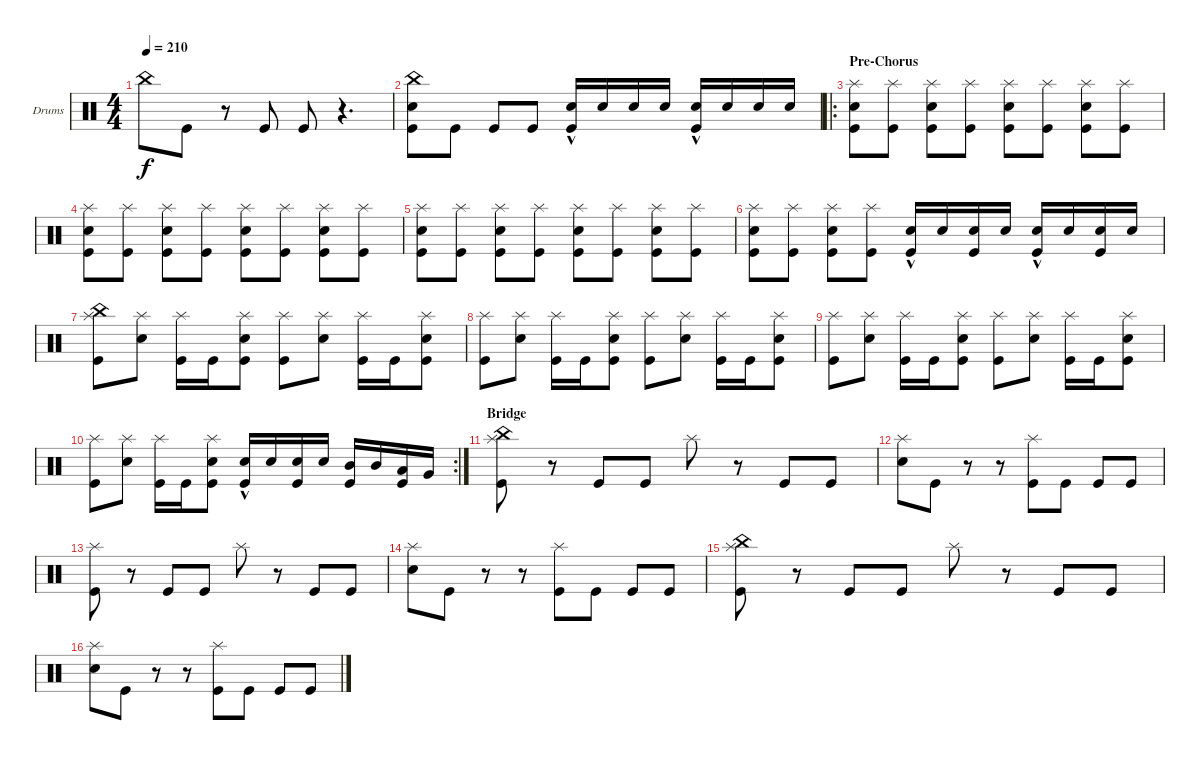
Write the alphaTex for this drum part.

\defaultSystemsLayout 4
\bracketExtendMode groupsimilarinstruments
\firstSystemTrackNameOrientation horizontal
\otherSystemsTrackNameOrientation horizontal
\track ("Drumkit" "Drums") {instrument percussion}
\staff {score}
\articulation defaults
\ts (4 4)
\tempo 210
\clef neutral
\ks c "China (hit)".8{dy f} "Kick (hit)".8
r.8 "Kick (hit)".8 "Kick (hit)".8 r.4{d} |
("Kick (hit)" "China (hit)" "Snare (hit) 2").8 "Kick (hit)".8 "Kick (hit)".8 "Kick (hit)".8 ("Snare (hit) 2"{hac} "Kick (hit)").16 "Snare (hit) 2".16 "Snare (hit) 2".16 "Snare (hit) 2".16 ("Snare (hit) 2"{hac} "Kick (hit)").16 "Snare (hit) 2".16 "Snare (hit) 2".16 "Snare (hit) 2".16 |
\ro
\section ("" "Pre-Chorus")
("Splash (hit)" "Snare (hit) 2" "Kick (hit)").8 ("Splash (hit)" "Kick (hit)").8 ("Splash (hit)" "Snare (hit) 2" "Kick (hit)").8 ("Splash (hit)" "Kick (hit)").8 ("Splash (hit)" "Snare (hit) 2" "Kick (hit)").8 ("Splash (hit)" "Kick (hit)").8 ("Splash (hit)" "Snare (hit) 2" "Kick (hit)").8 ("Splash (hit)" "Kick (hit)").8 |
("Splash (hit)" "Snare (hit) 2" "Kick (hit)").8 ("Splash (hit)" "Kick (hit)").8 ("Splash (hit)" "Snare (hit) 2" "Kick (hit)").8 ("Splash (hit)" "Kick (hit)").8 ("Splash (hit)" "Snare (hit) 2" "Kick (hit)").8 ("Splash (hit)" "Kick (hit)").8 ("Splash (hit)" "Snare (hit) 2" "Kick (hit)").8 ("Splash (hit)" "Kick (hit)").8 |
("Splash (hit)" "Snare (hit) 2" "Kick (hit)").8 ("Splash (hit)" "Kick (hit)").8 ("Splash (hit)" "Snare (hit) 2" "Kick (hit)").8 ("Splash (hit)" "Kick (hit)").8 ("Splash (hit)" "Snare (hit) 2" "Kick (hit)").8 ("Splash (hit)" "Kick (hit)").8 ("Splash (hit)" "Snare (hit) 2" "Kick (hit)").8 ("Splash (hit)" "Kick (hit)").8 |
("Splash (hit)" "Snare (hit) 2" "Kick (hit)").8 ("Splash (hit)" "Kick (hit)").8 ("Splash (hit)" "Snare (hit) 2" "Kick (hit)").8 ("Splash (hit)" "Kick (hit)").8 ("Kick (hit)" "Snare (hit) 2"{hac}).16 "Snare (hit) 2".16 ("Snare (hit) 2" "Kick (hit)").16 "Snare (hit) 2".16 ("Kick (hit)" "Snare (hit) 2"{hac}).16 "Snare (hit) 2".16 ("Snare (hit) 2" "Kick (hit)").16 "Snare (hit) 2".16 |
("Splash (hit)" "Kick (hit)" "China (hit)").8 ("Splash (hit)" "Snare (hit) 2").8 ("Splash (hit)" "Kick (hit)").16 "Kick (hit)".16 ("Splash (hit)" "Kick (hit)" "Snare (hit) 2").8 ("Splash (hit)" "Kick (hit)").8 ("Splash (hit)" "Snare (hit) 2").8 ("Splash (hit)" "Kick (hit)").16 "Kick (hit)".16 ("Splash (hit)" "Kick (hit)" "Snare (hit) 2").8 |
("Splash (hit)" "Kick (hit)").8 ("Splash (hit)" "Snare (hit) 2").8 ("Splash (hit)" "Kick (hit)").16 "Kick (hit)".16 ("Splash (hit)" "Kick (hit)" "Snare (hit) 2").8 ("Splash (hit)" "Kick (hit)").8 ("Splash (hit)" "Snare (hit) 2").8 ("Splash (hit)" "Kick (hit)").16 "Kick (hit)".16 ("Splash (hit)" "Kick (hit)" "Snare (hit) 2").8 |
("Splash (hit)" "Kick (hit)").8 ("Splash (hit)" "Snare (hit) 2").8 ("Splash (hit)" "Kick (hit)").16 "Kick (hit)".16 ("Splash (hit)" "Kick (hit)" "Snare (hit) 2").8 ("Splash (hit)" "Kick (hit)").8 ("Splash (hit)" "Snare (hit) 2").8 ("Splash (hit)" "Kick (hit)").16 "Kick (hit)".16 ("Splash (hit)" "Kick (hit)" "Snare (hit) 2").8 |
\rc 2
("Splash (hit)" "Kick (hit)").8 ("Splash (hit)" "Snare (hit) 2").8 ("Splash (hit)" "Kick (hit)").16 "Kick (hit)".16 ("Splash (hit)" "Kick (hit)" "Snare (hit) 2").8 ("Kick (hit)" "Snare (hit) 2"{hac}).16 "Snare (hit) 2".16 ("Snare (hit) 2" "Kick (hit)").16 "Snare (hit) 2".16 ("Kick (hit)" "Mid Tom (hit)").16 "Mid Tom (hit)".16 ("Kick (hit)" "Low Tom (hit)").16 "Very Low Tom (hit)".16 |
\section ("" "Bridge")
("Splash (hit)" "China (hit)" "Kick (hit)").8 r.8 "Kick (hit)".8 "Kick (hit)".8 "Splash (hit)".8 r.8 "Kick (hit)".8 "Kick (hit)".8 |
("Snare (hit) 2" "Splash (hit)").8 "Kick (hit)".8 r.8 r.8 ("Kick (hit)" "Splash (hit)").8 "Kick (hit)".8 "Kick (hit)".8 "Kick (hit)".8 |
("Splash (hit)" "Kick (hit)").8 r.8 "Kick (hit)".8 "Kick (hit)".8 "Splash (hit)".8 r.8 "Kick (hit)".8 "Kick (hit)".8 |
("Snare (hit) 2" "Splash (hit)").8 "Kick (hit)".8 r.8 r.8 ("Kick (hit)" "Splash (hit)").8 "Kick (hit)".8 "Kick (hit)".8 "Kick (hit)".8 |
("Splash (hit)" "China (hit)" "Kick (hit)").8 r.8 "Kick (hit)".8 "Kick (hit)".8 "Splash (hit)".8 r.8 "Kick (hit)".8 "Kick (hit)".8 |
("Snare (hit) 2" "Splash (hit)").8 "Kick (hit)".8 r.8 r.8 ("Kick (hit)" "Splash (hit)").8 "Kick (hit)".8 "Kick (hit)".8 "Kick (hit)".8
